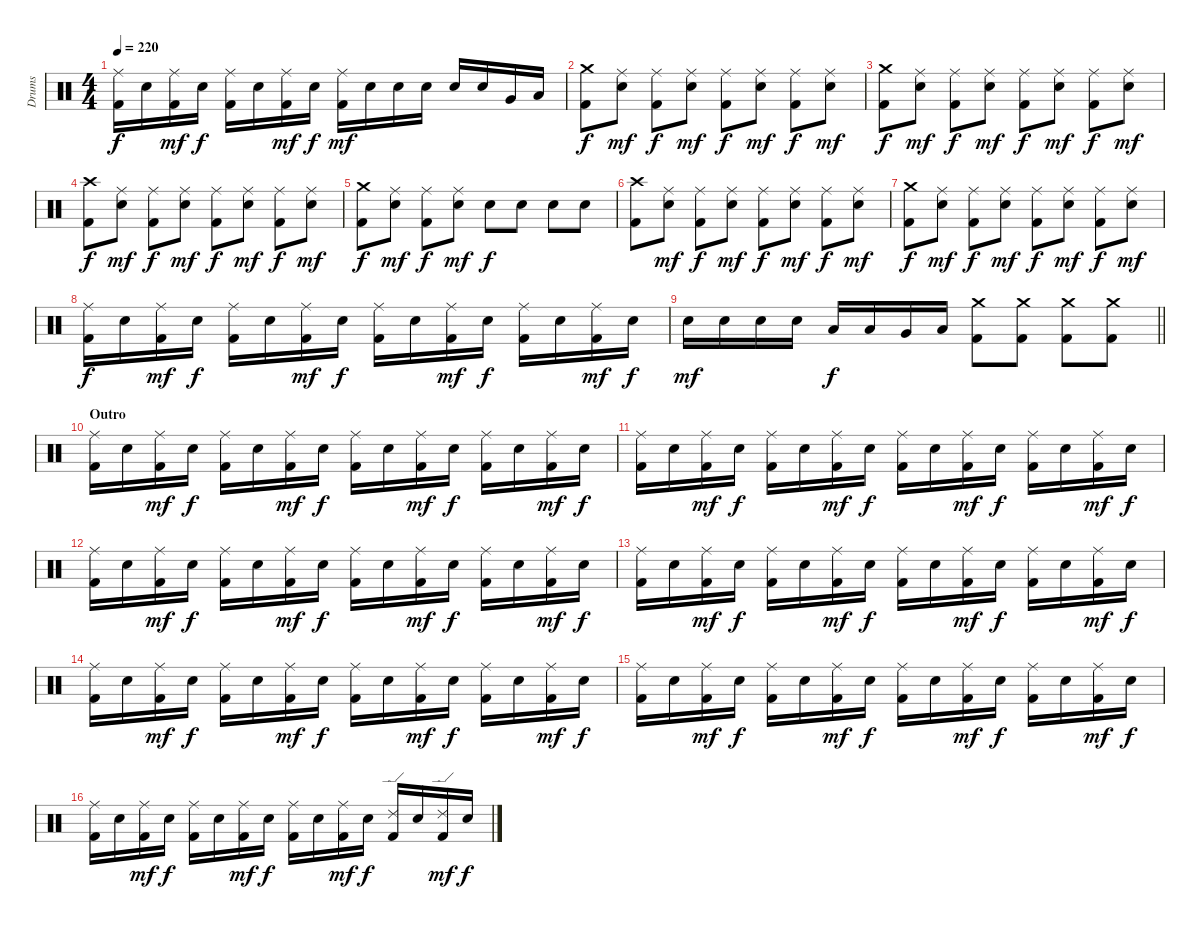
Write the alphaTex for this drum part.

\track ("Drums" "Drums") {instrument percussion}
\staff {score}
\articulation defaults
\ts (4 4)
\tempo 220
\clef neutral
\ks c
("Ride (middle)" "Kick (hit) 2").16{dy f} "Snare (hit) 2".16 ("Ride (middle)" "Kick (hit) 2").16{dy mf} "Snare (hit) 2".16{dy f} ("Ride (middle)" "Kick (hit) 2").16 "Snare (hit) 2".16 ("Ride (middle)" "Kick (hit) 2").16{dy mf} "Snare (hit) 2".16{dy f} ("Ride (middle)" "Kick (hit) 2").16{dy mf} "Snare (hit) 2".16 "Snare (hit) 2".16 "Snare (hit) 2".16 "Snare (hit) 2".16 "Snare (hit) 2".16 "Very Low Tom (hit)".16 "Low Floor Tom (hit)".16 |
("Crash medium (hit)" "Kick (hit) 2").8{dy f} ("Ride (middle)" "Snare (hit) 2").8{dy mf} ("Ride (middle)" "Kick (hit) 2").8{dy f} ("Ride (middle)" "Snare (hit) 2").8{dy mf} ("Ride (middle)" "Kick (hit) 2").8{dy f} ("Ride (middle)" "Snare (hit) 2").8{dy mf} ("Ride (middle)" "Kick (hit) 2").8{dy f} ("Ride (middle)" "Snare (hit) 2").8{dy mf} |
("Crash medium (hit)" "Kick (hit) 2").8{dy f} ("Ride (middle)" "Snare (hit) 2").8{dy mf} ("Ride (middle)" "Kick (hit) 2").8{dy f} ("Ride (middle)" "Snare (hit) 2").8{dy mf} ("Ride (middle)" "Kick (hit) 2").8{dy f} ("Ride (middle)" "Snare (hit) 2").8{dy mf} ("Ride (middle)" "Kick (hit) 2").8{dy f} ("Ride (middle)" "Snare (hit) 2").8{dy mf} |
("Crash high (hit)" "Kick (hit) 2").8{dy f} ("Ride (middle)" "Snare (hit) 2").8{dy mf} ("Ride (middle)" "Kick (hit) 2").8{dy f} ("Ride (middle)" "Snare (hit) 2").8{dy mf} ("Ride (middle)" "Kick (hit) 2").8{dy f} ("Ride (middle)" "Snare (hit) 2").8{dy mf} ("Ride (middle)" "Kick (hit) 2").8{dy f} ("Ride (middle)" "Snare (hit) 2").8{dy mf} |
("Crash medium (hit)" "Kick (hit) 2").8{dy f} ("Ride (middle)" "Snare (hit) 2").8{dy mf} ("Ride (middle)" "Kick (hit) 2").8{dy f} ("Ride (middle)" "Snare (hit) 2").8{dy mf} "Snare (hit) 2".8{dy f} "Snare (hit) 2".8 "Snare (hit) 2".8 "Snare (hit) 2".8 |
("Crash high (hit)" "Kick (hit) 2").8 ("Ride (middle)" "Snare (hit) 2").8{dy mf} ("Ride (middle)" "Kick (hit) 2").8{dy f} ("Ride (middle)" "Snare (hit) 2").8{dy mf} ("Ride (middle)" "Kick (hit) 2").8{dy f} ("Ride (middle)" "Snare (hit) 2").8{dy mf} ("Ride (middle)" "Kick (hit) 2").8{dy f} ("Ride (middle)" "Snare (hit) 2").8{dy mf} |
("Crash medium (hit)" "Kick (hit) 2").8{dy f} ("Ride (middle)" "Snare (hit) 2").8{dy mf} ("Ride (middle)" "Kick (hit) 2").8{dy f} ("Ride (middle)" "Snare (hit) 2").8{dy mf} ("Ride (middle)" "Kick (hit) 2").8{dy f} ("Ride (middle)" "Snare (hit) 2").8{dy mf} ("Ride (middle)" "Kick (hit) 2").8{dy f} ("Ride (middle)" "Snare (hit) 2").8{dy mf} |
("Ride (middle)" "Kick (hit) 2").16{dy f} "Snare (hit) 2".16 ("Ride (middle)" "Kick (hit) 2").16{dy mf} "Snare (hit) 2".16{dy f} ("Ride (middle)" "Kick (hit) 2").16 "Snare (hit) 2".16 ("Ride (middle)" "Kick (hit) 2").16{dy mf} "Snare (hit) 2".16{dy f} ("Ride (middle)" "Kick (hit) 2").16 "Snare (hit) 2".16 ("Ride (middle)" "Kick (hit) 2").16{dy mf} "Snare (hit) 2".16{dy f} ("Ride (middle)" "Kick (hit) 2").16 "Snare (hit) 2".16 ("Ride (middle)" "Kick (hit) 2").16{dy mf} "Snare (hit) 2".16{dy f} |
\barLineRight lightlight "Snare (hit) 2".16{dy mf} "Snare (hit) 2".16 "Snare (hit) 2".16 "Snare (hit) 2".16 "Low Tom (hit)".16{dy f} "Low Tom (hit)".16 "Very Low Tom (hit)".16 "Low Floor Tom (hit)".16
("Crash medium (hit)" "Kick (hit) 2").8 ("Crash medium (hit)" "Kick (hit) 2").8 ("Crash medium (hit)" "Kick (hit) 2").8 ("Crash medium (hit)" "Kick (hit) 2").8 |
\section ("" "Outro")
("Ride (middle)" "Kick (hit) 2").16 "Snare (hit) 2".16 ("Ride (middle)" "Kick (hit) 2").16{dy mf} "Snare (hit) 2".16{dy f} ("Ride (middle)" "Kick (hit) 2").16 "Snare (hit) 2".16 ("Ride (middle)" "Kick (hit) 2").16{dy mf} "Snare (hit) 2".16{dy f} ("Ride (middle)" "Kick (hit) 2").16 "Snare (hit) 2".16 ("Ride (middle)" "Kick (hit) 2").16{dy mf} "Snare (hit) 2".16{dy f} ("Ride (middle)" "Kick (hit) 2").16 "Snare (hit) 2".16 ("Ride (middle)" "Kick (hit) 2").16{dy mf} "Snare (hit) 2".16{dy f} |
("Ride (middle)" "Kick (hit) 2").16 "Snare (hit) 2".16 ("Ride (middle)" "Kick (hit) 2").16{dy mf} "Snare (hit) 2".16{dy f} ("Ride (middle)" "Kick (hit) 2").16 "Snare (hit) 2".16 ("Ride (middle)" "Kick (hit) 2").16{dy mf} "Snare (hit) 2".16{dy f} ("Ride (middle)" "Kick (hit) 2").16 "Snare (hit) 2".16 ("Ride (middle)" "Kick (hit) 2").16{dy mf} "Snare (hit) 2".16{dy f} ("Ride (middle)" "Kick (hit) 2").16 "Snare (hit) 2".16 ("Ride (middle)" "Kick (hit) 2").16{dy mf} "Snare (hit) 2".16{dy f} |
("Ride (middle)" "Kick (hit) 2").16 "Snare (hit) 2".16 ("Ride (middle)" "Kick (hit) 2").16{dy mf} "Snare (hit) 2".16{dy f} ("Ride (middle)" "Kick (hit) 2").16 "Snare (hit) 2".16 ("Ride (middle)" "Kick (hit) 2").16{dy mf} "Snare (hit) 2".16{dy f} ("Ride (middle)" "Kick (hit) 2").16 "Snare (hit) 2".16 ("Ride (middle)" "Kick (hit) 2").16{dy mf} "Snare (hit) 2".16{dy f} ("Ride (middle)" "Kick (hit) 2").16 "Snare (hit) 2".16 ("Ride (middle)" "Kick (hit) 2").16{dy mf} "Snare (hit) 2".16{dy f} |
("Ride (middle)" "Kick (hit) 2").16 "Snare (hit) 2".16 ("Ride (middle)" "Kick (hit) 2").16{dy mf} "Snare (hit) 2".16{dy f} ("Ride (middle)" "Kick (hit) 2").16 "Snare (hit) 2".16 ("Ride (middle)" "Kick (hit) 2").16{dy mf} "Snare (hit) 2".16{dy f} ("Ride (middle)" "Kick (hit) 2").16 "Snare (hit) 2".16 ("Ride (middle)" "Kick (hit) 2").16{dy mf} "Snare (hit) 2".16{dy f} ("Ride (middle)" "Kick (hit) 2").16 "Snare (hit) 2".16 ("Ride (middle)" "Kick (hit) 2").16{dy mf} "Snare (hit) 2".16{dy f} |
("Ride (middle)" "Kick (hit) 2").16 "Snare (hit) 2".16 ("Ride (middle)" "Kick (hit) 2").16{dy mf} "Snare (hit) 2".16{dy f} ("Ride (middle)" "Kick (hit) 2").16 "Snare (hit) 2".16 ("Ride (middle)" "Kick (hit) 2").16{dy mf} "Snare (hit) 2".16{dy f} ("Ride (middle)" "Kick (hit) 2").16 "Snare (hit) 2".16 ("Ride (middle)" "Kick (hit) 2").16{dy mf} "Snare (hit) 2".16{dy f} ("Ride (middle)" "Kick (hit) 2").16 "Snare (hit) 2".16 ("Ride (middle)" "Kick (hit) 2").16{dy mf} "Snare (hit) 2".16{dy f} |
("Ride (middle)" "Kick (hit) 2").16 "Snare (hit) 2".16 ("Ride (middle)" "Kick (hit) 2").16{dy mf} "Snare (hit) 2".16{dy f} ("Ride (middle)" "Kick (hit) 2").16 "Snare (hit) 2".16 ("Ride (middle)" "Kick (hit) 2").16{dy mf} "Snare (hit) 2".16{dy f} ("Ride (middle)" "Kick (hit) 2").16 "Snare (hit) 2".16 ("Ride (middle)" "Kick (hit) 2").16{dy mf} "Snare (hit) 2".16{dy f} ("Ride (middle)" "Kick (hit) 2").16 "Snare (hit) 2".16 ("Ride (middle)" "Kick (hit) 2").16{dy mf} "Snare (hit) 2".16{dy f} |
("Ride (middle)" "Kick (hit) 2").16 "Snare (hit) 2".16 ("Ride (middle)" "Kick (hit) 2").16{dy mf} "Snare (hit) 2".16{dy f} ("Ride (middle)" "Kick (hit) 2").16 "Snare (hit) 2".16 ("Ride (middle)" "Kick (hit) 2").16{dy mf} "Snare (hit) 2".16{dy f} ("Ride (middle)" "Kick (hit) 2").16 "Snare (hit) 2".16 ("Ride (middle)" "Kick (hit) 2").16{dy mf} "Snare (hit) 2".16{dy f} ("Ride (edge) 2" "Kick (hit) 2").16 "Snare (hit) 2".16 ("Ride (edge) 2" "Kick (hit) 2").16{dy mf} "Snare (hit) 2".16{dy f}
